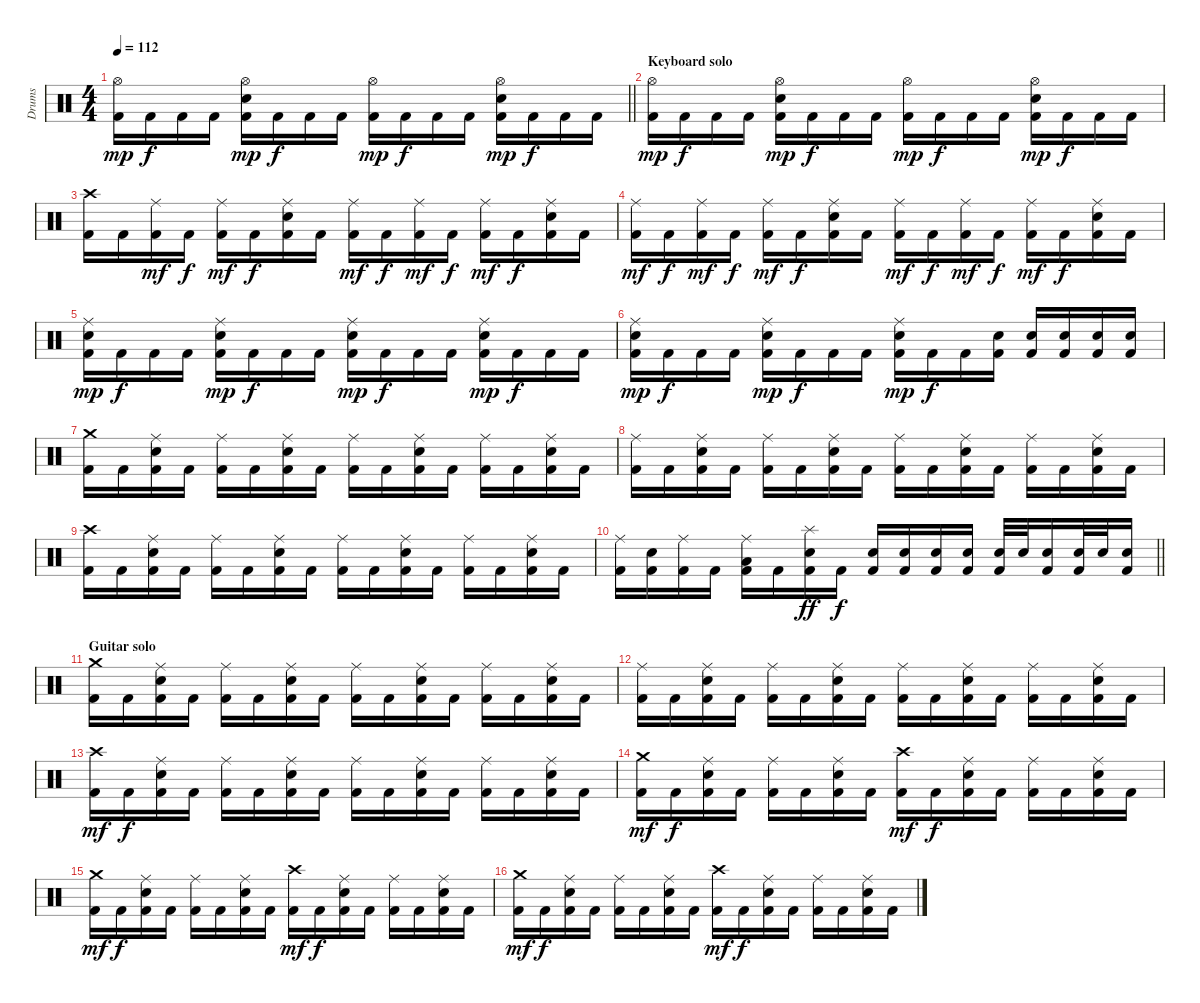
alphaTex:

\track ("Drums" "Drums") {instrument percussion}
\staff {score}
\articulation defaults
\ts (4 4)
\tempo 112
\clef neutral
\barLineRight lightlight
\ks c
("Hi-Hat (open)" "Kick (hit) 2").16{dy mp} "Kick (hit) 2".16{dy f} "Kick (hit) 2".16 "Kick (hit) 2".16 ("Hi-Hat (open)" "Electric Snare (hit)" "Kick (hit) 2").16{dy mp} "Kick (hit) 2".16{dy f} "Kick (hit) 2".16 "Kick (hit) 2".16 ("Hi-Hat (open)" "Kick (hit) 2").16{dy mp} "Kick (hit) 2".16{dy f} "Kick (hit) 2".16 "Kick (hit) 2".16 ("Hi-Hat (open)" "Electric Snare (hit)" "Kick (hit) 2").16{dy mp} "Kick (hit) 2".16{dy f} "Kick (hit) 2".16 "Kick (hit) 2".16 |
\section ("" "Keyboard solo")
("Hi-Hat (open)" "Kick (hit) 2").16{dy mp} "Kick (hit) 2".16{dy f} "Kick (hit) 2".16 "Kick (hit) 2".16 ("Hi-Hat (open)" "Electric Snare (hit)" "Kick (hit) 2").16{dy mp} "Kick (hit) 2".16{dy f} "Kick (hit) 2".16 "Kick (hit) 2".16 ("Hi-Hat (open)" "Kick (hit) 2").16{dy mp} "Kick (hit) 2".16{dy f} "Kick (hit) 2".16 "Kick (hit) 2".16 ("Hi-Hat (open)" "Electric Snare (hit)" "Kick (hit) 2").16{dy mp} "Kick (hit) 2".16{dy f} "Kick (hit) 2".16 "Kick (hit) 2".16 |
("Crash high (hit)" "Kick (hit) 2").16 "Kick (hit) 2".16 ("Ride (middle)" "Kick (hit) 2").16{dy mf} "Kick (hit) 2".16{dy f} ("Ride (middle)" "Kick (hit) 2").16{dy mf} "Kick (hit) 2".16{dy f} ("Ride (middle)" "Electric Snare (hit)" "Kick (hit) 2").16 "Kick (hit) 2".16 ("Ride (middle)" "Kick (hit) 2").16{dy mf} "Kick (hit) 2".16{dy f} ("Ride (middle)" "Kick (hit) 2").16{dy mf} "Kick (hit) 2".16{dy f} ("Ride (middle)" "Kick (hit) 2").16{dy mf} "Kick (hit) 2".16{dy f} ("Ride (middle)" "Electric Snare (hit)" "Kick (hit) 2").16 "Kick (hit) 2".16 |
("Ride (middle)" "Kick (hit) 2").16{dy mf} "Kick (hit) 2".16{dy f} ("Ride (middle)" "Kick (hit) 2").16{dy mf} "Kick (hit) 2".16{dy f} ("Ride (middle)" "Kick (hit) 2").16{dy mf} "Kick (hit) 2".16{dy f} ("Ride (middle)" "Electric Snare (hit)" "Kick (hit) 2").16 "Kick (hit) 2".16 ("Ride (middle)" "Kick (hit) 2").16{dy mf} "Kick (hit) 2".16{dy f} ("Ride (middle)" "Kick (hit) 2").16{dy mf} "Kick (hit) 2".16{dy f} ("Ride (middle)" "Kick (hit) 2").16{dy mf} "Kick (hit) 2".16{dy f} ("Ride (middle)" "Electric Snare (hit)" "Kick (hit) 2").16 "Kick (hit) 2".16 |
("Ride (middle)" "Electric Snare (hit)" "Kick (hit) 2").16{dy mp} "Kick (hit) 2".16{dy f} "Kick (hit) 2".16 "Kick (hit) 2".16 ("Ride (middle)" "Electric Snare (hit)" "Kick (hit) 2").16{dy mp} "Kick (hit) 2".16{dy f} "Kick (hit) 2".16 "Kick (hit) 2".16 ("Ride (middle)" "Electric Snare (hit)" "Kick (hit) 2").16{dy mp} "Kick (hit) 2".16{dy f} "Kick (hit) 2".16 "Kick (hit) 2".16 ("Ride (middle)" "Electric Snare (hit)" "Kick (hit) 2").16{dy mp} "Kick (hit) 2".16{dy f} "Kick (hit) 2".16 "Kick (hit) 2".16 |
("Ride (middle)" "Electric Snare (hit)" "Kick (hit) 2").16{dy mp} "Kick (hit) 2".16{dy f} "Kick (hit) 2".16 "Kick (hit) 2".16 ("Ride (middle)" "Electric Snare (hit)" "Kick (hit) 2").16{dy mp} "Kick (hit) 2".16{dy f} "Kick (hit) 2".16 "Kick (hit) 2".16 ("Ride (middle)" "Electric Snare (hit)" "Kick (hit) 2").16{dy mp} "Kick (hit) 2".16{dy f} "Kick (hit) 2".16 ("Electric Snare (hit)" "Kick (hit) 2").16 ("Electric Snare (hit)" "Kick (hit) 2").16 ("Electric Snare (hit)" "Kick (hit) 2").16 ("Electric Snare (hit)" "Kick (hit) 2").16 ("Electric Snare (hit)" "Kick (hit) 2").16 |
("Crash medium (hit)" "Kick (hit) 2").16 "Kick (hit) 2".16 ("Ride (middle)" "Electric Snare (hit)" "Kick (hit) 2").16 "Kick (hit) 2".16 ("Ride (middle)" "Kick (hit) 2").16 "Kick (hit) 2".16 ("Ride (middle)" "Electric Snare (hit)" "Kick (hit) 2").16 "Kick (hit) 2".16 ("Ride (middle)" "Kick (hit) 2").16 "Kick (hit) 2".16 ("Ride (middle)" "Electric Snare (hit)" "Kick (hit) 2").16 "Kick (hit) 2".16 ("Ride (middle)" "Kick (hit) 2").16 "Kick (hit) 2".16 ("Ride (middle)" "Electric Snare (hit)" "Kick (hit) 2").16 "Kick (hit) 2".16 |
("Ride (middle)" "Kick (hit) 2").16 "Kick (hit) 2".16 ("Ride (middle)" "Electric Snare (hit)" "Kick (hit) 2").16 "Kick (hit) 2".16 ("Ride (middle)" "Kick (hit) 2").16 "Kick (hit) 2".16 ("Ride (middle)" "Electric Snare (hit)" "Kick (hit) 2").16 "Kick (hit) 2".16 ("Ride (middle)" "Kick (hit) 2").16 "Kick (hit) 2".16 ("Ride (middle)" "Electric Snare (hit)" "Kick (hit) 2").16 "Kick (hit) 2".16 ("Ride (middle)" "Kick (hit) 2").16 "Kick (hit) 2".16 ("Ride (middle)" "Electric Snare (hit)" "Kick (hit) 2").16 "Kick (hit) 2".16 |
("Crash high (hit)" "Kick (hit) 2").16 "Kick (hit) 2".16 ("Ride (middle)" "Electric Snare (hit)" "Kick (hit) 2").16 "Kick (hit) 2".16 ("Ride (middle)" "Kick (hit) 2").16 "Kick (hit) 2".16 ("Ride (middle)" "Electric Snare (hit)" "Kick (hit) 2").16 "Kick (hit) 2".16 ("Ride (middle)" "Kick (hit) 2").16 "Kick (hit) 2".16 ("Ride (middle)" "Electric Snare (hit)" "Kick (hit) 2").16 "Kick (hit) 2".16 ("Ride (middle)" "Kick (hit) 2").16 "Kick (hit) 2".16 ("Ride (middle)" "Electric Snare (hit)" "Kick (hit) 2").16 "Kick (hit) 2".16 |
\barLineRight lightlight
("Ride (middle)" "Kick (hit) 2").16 ("Electric Snare (hit)" "Kick (hit) 2").16 ("Ride (middle)" "Kick (hit) 2").16 "Kick (hit) 2".16 ("Ride (middle)" "Low Tom (hit)" "Kick (hit) 2").16 "Kick (hit) 2".16 ("Splash (hit)" "Electric Snare (hit)" "Kick (hit) 2").16{dy ff} "Kick (hit) 2".16{dy f} ("Electric Snare (hit)" "Kick (hit) 2").16 ("Electric Snare (hit)" "Kick (hit) 2").16 ("Electric Snare (hit)" "Kick (hit) 2").16 ("Electric Snare (hit)" "Kick (hit) 2").16 ("Electric Snare (hit)" "Kick (hit) 2").32 "Electric Snare (hit)".32 ("Electric Snare (hit)" "Kick (hit) 2").16 ("Electric Snare (hit)" "Kick (hit) 2").32 "Electric Snare (hit)".32 ("Electric Snare (hit)" "Kick (hit) 2").16 |
\section ("" "Guitar solo")
("Crash medium (hit)" "Kick (hit) 2").16 "Kick (hit) 2".16 ("Ride (middle)" "Electric Snare (hit)" "Kick (hit) 2").16 "Kick (hit) 2".16 ("Ride (middle)" "Kick (hit) 2").16 "Kick (hit) 2".16 ("Ride (middle)" "Electric Snare (hit)" "Kick (hit) 2").16 "Kick (hit) 2".16 ("Ride (middle)" "Kick (hit) 2").16 "Kick (hit) 2".16 ("Ride (middle)" "Electric Snare (hit)" "Kick (hit) 2").16 "Kick (hit) 2".16 ("Ride (middle)" "Kick (hit) 2").16 "Kick (hit) 2".16 ("Ride (middle)" "Electric Snare (hit)" "Kick (hit) 2").16 "Kick (hit) 2".16 |
("Ride (middle)" "Kick (hit) 2").16 "Kick (hit) 2".16 ("Ride (middle)" "Electric Snare (hit)" "Kick (hit) 2").16 "Kick (hit) 2".16 ("Ride (middle)" "Kick (hit) 2").16 "Kick (hit) 2".16 ("Ride (middle)" "Electric Snare (hit)" "Kick (hit) 2").16 "Kick (hit) 2".16 ("Ride (middle)" "Kick (hit) 2").16 "Kick (hit) 2".16 ("Ride (middle)" "Electric Snare (hit)" "Kick (hit) 2").16 "Kick (hit) 2".16 ("Ride (middle)" "Kick (hit) 2").16 "Kick (hit) 2".16 ("Ride (middle)" "Electric Snare (hit)" "Kick (hit) 2").16 "Kick (hit) 2".16 |
("Crash high (hit)" "Kick (hit) 2").16{dy mf} "Kick (hit) 2".16{dy f} ("Ride (middle)" "Electric Snare (hit)" "Kick (hit) 2").16 "Kick (hit) 2".16 ("Ride (middle)" "Kick (hit) 2").16 "Kick (hit) 2".16 ("Ride (middle)" "Electric Snare (hit)" "Kick (hit) 2").16 "Kick (hit) 2".16 ("Ride (middle)" "Kick (hit) 2").16 "Kick (hit) 2".16 ("Ride (middle)" "Electric Snare (hit)" "Kick (hit) 2").16 "Kick (hit) 2".16 ("Ride (middle)" "Kick (hit) 2").16 "Kick (hit) 2".16 ("Ride (middle)" "Electric Snare (hit)" "Kick (hit) 2").16 "Kick (hit) 2".16 |
("Crash medium (hit)" "Kick (hit) 2").16{dy mf} "Kick (hit) 2".16{dy f} ("Ride (middle)" "Electric Snare (hit)" "Kick (hit) 2").16 "Kick (hit) 2".16 ("Ride (middle)" "Kick (hit) 2").16 "Kick (hit) 2".16 ("Ride (middle)" "Electric Snare (hit)" "Kick (hit) 2").16 "Kick (hit) 2".16 ("Crash high (hit)" "Kick (hit) 2").16{dy mf} "Kick (hit) 2".16{dy f} ("Ride (middle)" "Electric Snare (hit)" "Kick (hit) 2").16 "Kick (hit) 2".16 ("Ride (middle)" "Kick (hit) 2").16 "Kick (hit) 2".16 ("Ride (middle)" "Electric Snare (hit)" "Kick (hit) 2").16 "Kick (hit) 2".16 |
("Crash medium (hit)" "Kick (hit) 2").16{dy mf} "Kick (hit) 2".16{dy f} ("Ride (middle)" "Electric Snare (hit)" "Kick (hit) 2").16 "Kick (hit) 2".16 ("Ride (middle)" "Kick (hit) 2").16 "Kick (hit) 2".16 ("Ride (middle)" "Electric Snare (hit)" "Kick (hit) 2").16 "Kick (hit) 2".16 ("Crash high (hit)" "Kick (hit) 2").16{dy mf} "Kick (hit) 2".16{dy f} ("Ride (middle)" "Electric Snare (hit)" "Kick (hit) 2").16 "Kick (hit) 2".16 ("Ride (middle)" "Kick (hit) 2").16 "Kick (hit) 2".16 ("Ride (middle)" "Electric Snare (hit)" "Kick (hit) 2").16 "Kick (hit) 2".16 |
("Crash medium (hit)" "Kick (hit) 2").16{dy mf} "Kick (hit) 2".16{dy f} ("Ride (middle)" "Electric Snare (hit)" "Kick (hit) 2").16 "Kick (hit) 2".16 ("Ride (middle)" "Kick (hit) 2").16 "Kick (hit) 2".16 ("Ride (middle)" "Electric Snare (hit)" "Kick (hit) 2").16 "Kick (hit) 2".16 ("Crash high (hit)" "Kick (hit) 2").16{dy mf} "Kick (hit) 2".16{dy f} ("Ride (middle)" "Electric Snare (hit)" "Kick (hit) 2").16 "Kick (hit) 2".16 ("Ride (middle)" "Kick (hit) 2").16 "Kick (hit) 2".16 ("Ride (middle)" "Electric Snare (hit)" "Kick (hit) 2").16 "Kick (hit) 2".16
